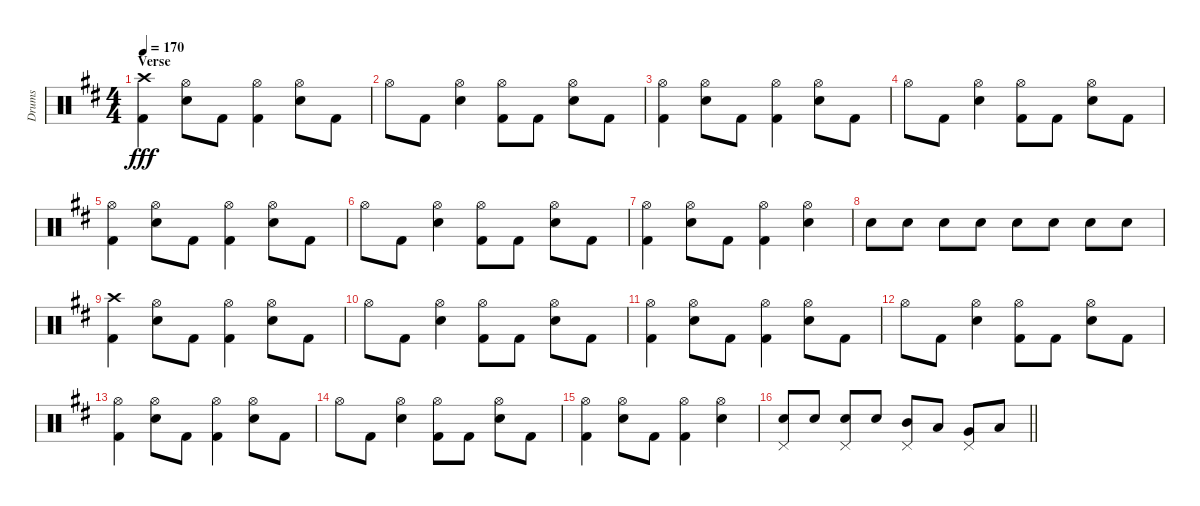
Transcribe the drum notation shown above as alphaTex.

\track ("Drums" "Drums") {instrument percussion}
\staff {score}
\articulation defaults
\ts (4 4)
\section ("" "Verse")
\tempo 170
\clef neutral
\ks bminor
("Crash high (hit)" "Kick (hit) 2").4{dy fff} ("Hi-Hat (open)" "Snare (hit) 2").8 "Kick (hit) 2".8 ("Hi-Hat (open)" "Kick (hit) 2").4 ("Hi-Hat (open)" "Snare (hit) 2").8 "Kick (hit) 2".8 |
"Hi-Hat (open)".8 "Kick (hit) 2".8 ("Hi-Hat (open)" "Snare (hit) 2").4 ("Hi-Hat (open)" "Kick (hit) 2").8 "Kick (hit) 2".8 ("Hi-Hat (open)" "Snare (hit) 2").8 "Kick (hit) 2".8 |
("Hi-Hat (open)" "Kick (hit) 2").4 ("Hi-Hat (open)" "Snare (hit) 2").8 "Kick (hit) 2".8 ("Hi-Hat (open)" "Kick (hit) 2").4 ("Hi-Hat (open)" "Snare (hit) 2").8 "Kick (hit) 2".8 |
"Hi-Hat (open)".8 "Kick (hit) 2".8 ("Hi-Hat (open)" "Snare (hit) 2").4 ("Hi-Hat (open)" "Kick (hit) 2").8 "Kick (hit) 2".8 ("Hi-Hat (open)" "Snare (hit) 2").8 "Kick (hit) 2".8 |
("Hi-Hat (open)" "Kick (hit) 2").4 ("Hi-Hat (open)" "Snare (hit) 2").8 "Kick (hit) 2".8 ("Hi-Hat (open)" "Kick (hit) 2").4 ("Hi-Hat (open)" "Snare (hit) 2").8 "Kick (hit) 2".8 |
"Hi-Hat (open)".8 "Kick (hit) 2".8 ("Hi-Hat (open)" "Snare (hit) 2").4 ("Hi-Hat (open)" "Kick (hit) 2").8 "Kick (hit) 2".8 ("Hi-Hat (open)" "Snare (hit) 2").8 "Kick (hit) 2".8 |
("Hi-Hat (open)" "Kick (hit) 2").4 ("Hi-Hat (open)" "Snare (hit) 2").8 "Kick (hit) 2".8 ("Hi-Hat (open)" "Kick (hit) 2").4 ("Hi-Hat (open)" "Snare (hit) 2").4 |
"Snare (hit) 2".8 "Snare (hit) 2".8 "Snare (hit) 2".8 "Snare (hit) 2".8 "Snare (hit) 2".8 "Snare (hit) 2".8 "Snare (hit) 2".8 "Snare (hit) 2".8 |
("Crash high (hit)" "Kick (hit) 2").4 ("Hi-Hat (open)" "Snare (hit) 2").8 "Kick (hit) 2".8 ("Hi-Hat (open)" "Kick (hit) 2").4 ("Hi-Hat (open)" "Snare (hit) 2").8 "Kick (hit) 2".8 |
"Hi-Hat (open)".8 "Kick (hit) 2".8 ("Hi-Hat (open)" "Snare (hit) 2").4 ("Hi-Hat (open)" "Kick (hit) 2").8 "Kick (hit) 2".8 ("Hi-Hat (open)" "Snare (hit) 2").8 "Kick (hit) 2".8 |
("Hi-Hat (open)" "Kick (hit) 2").4 ("Hi-Hat (open)" "Snare (hit) 2").8 "Kick (hit) 2".8 ("Hi-Hat (open)" "Kick (hit) 2").4 ("Hi-Hat (open)" "Snare (hit) 2").8 "Kick (hit) 2".8 |
"Hi-Hat (open)".8 "Kick (hit) 2".8 ("Hi-Hat (open)" "Snare (hit) 2").4 ("Hi-Hat (open)" "Kick (hit) 2").8 "Kick (hit) 2".8 ("Hi-Hat (open)" "Snare (hit) 2").8 "Kick (hit) 2".8 |
("Hi-Hat (open)" "Kick (hit) 2").4 ("Hi-Hat (open)" "Snare (hit) 2").8 "Kick (hit) 2".8 ("Hi-Hat (open)" "Kick (hit) 2").4 ("Hi-Hat (open)" "Snare (hit) 2").8 "Kick (hit) 2".8 |
"Hi-Hat (open)".8 "Kick (hit) 2".8 ("Hi-Hat (open)" "Snare (hit) 2").4 ("Hi-Hat (open)" "Kick (hit) 2").8 "Kick (hit) 2".8 ("Hi-Hat (open)" "Snare (hit) 2").8 "Kick (hit) 2".8 |
("Hi-Hat (open)" "Kick (hit) 2").4 ("Hi-Hat (open)" "Snare (hit) 2").8 "Kick (hit) 2".8 ("Hi-Hat (open)" "Kick (hit) 2").4 ("Hi-Hat (open)" "Snare (hit) 2").4 |
\barLineRight lightlight
("Pedal Hi-Hat (hit)" "Snare (hit) 2").8 "Snare (hit) 2".8 ("Pedal Hi-Hat (hit)" "Snare (hit) 2").8 "Snare (hit) 2".8 ("Pedal Hi-Hat (hit)" "Mid Tom (hit)").8 "Low Tom (hit)".8 ("Pedal Hi-Hat (hit)" "Very Low Tom (hit)").8 "Low Floor Tom (hit)".8
